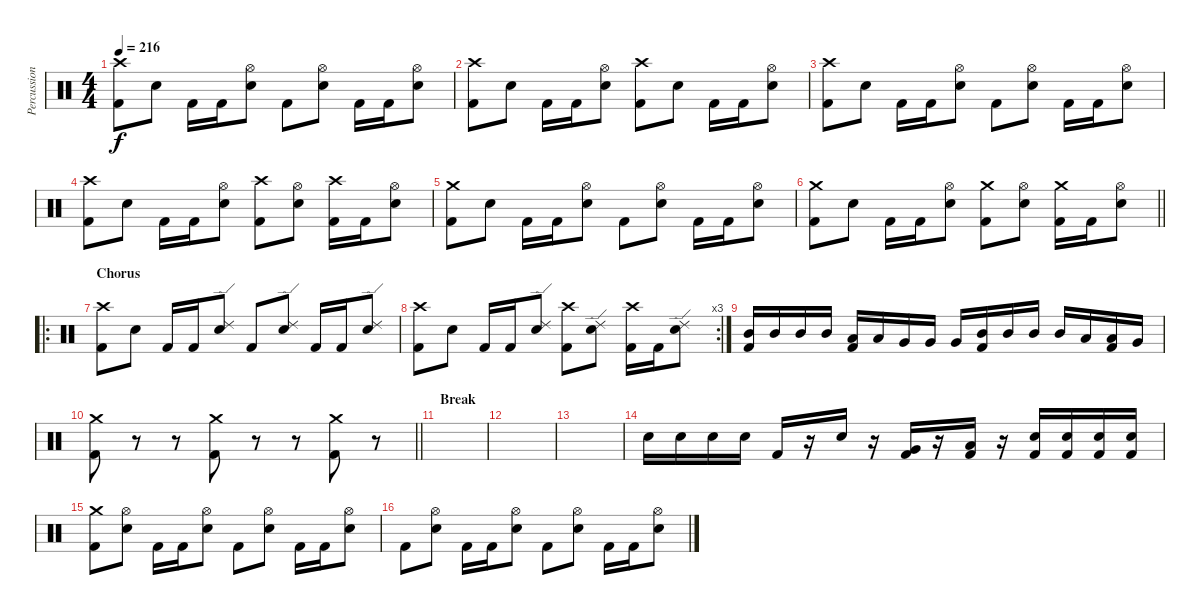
\track ("Percussions" "Percussion") {instrument percussion}
\staff {score}
\articulation defaults
\ts (4 4)
\tempo 216
\clef neutral
\ks c
("Crash high (hit)" "Kick (hit) 2").8{dy f} "Electric Snare (hit)".8 "Kick (hit) 2".16 "Kick (hit) 2".16 ("Hi-Hat (open)" "Electric Snare (hit)").8 "Kick (hit) 2".8 ("Hi-Hat (open)" "Electric Snare (hit)").8 "Kick (hit) 2".16 "Kick (hit) 2".16 ("Hi-Hat (open)" "Electric Snare (hit)").8 |
("Crash high (hit)" "Kick (hit) 2").8 "Electric Snare (hit)".8 "Kick (hit) 2".16 "Kick (hit) 2".16 ("Hi-Hat (open)" "Electric Snare (hit)").8 ("Crash high (hit)" "Kick (hit) 2").8 "Electric Snare (hit)".8 "Kick (hit) 2".16 "Kick (hit) 2".16 ("Hi-Hat (open)" "Electric Snare (hit)").8 |
("Crash high (hit)" "Kick (hit) 2").8 "Electric Snare (hit)".8 "Kick (hit) 2".16 "Kick (hit) 2".16 ("Hi-Hat (open)" "Electric Snare (hit)").8 "Kick (hit) 2".8 ("Hi-Hat (open)" "Electric Snare (hit)").8 "Kick (hit) 2".16 "Kick (hit) 2".16 ("Hi-Hat (open)" "Electric Snare (hit)").8 |
("Crash high (hit)" "Kick (hit) 2").8 "Electric Snare (hit)".8 "Kick (hit) 2".16 "Kick (hit) 2".16 ("Hi-Hat (open)" "Electric Snare (hit)").8 ("Crash high (hit)" "Kick (hit) 2").8 ("Hi-Hat (open)" "Electric Snare (hit)").8 ("Crash high (hit)" "Kick (hit) 2").16 "Kick (hit) 2".16 ("Hi-Hat (open)" "Electric Snare (hit)").8 |
("Crash medium (hit)" "Kick (hit) 2").8 "Electric Snare (hit)".8 "Kick (hit) 2".16 "Kick (hit) 2".16 ("Hi-Hat (open)" "Electric Snare (hit)").8 "Kick (hit) 2".8 ("Hi-Hat (open)" "Electric Snare (hit)").8 "Kick (hit) 2".16 "Kick (hit) 2".16 ("Hi-Hat (open)" "Electric Snare (hit)").8 |
\barLineRight lightlight
("Crash medium (hit)" "Kick (hit) 2").8 "Electric Snare (hit)".8 "Kick (hit) 2".16 "Kick (hit) 2".16 ("Hi-Hat (open)" "Electric Snare (hit)").8 ("Crash medium (hit)" "Kick (hit) 2").8 ("Hi-Hat (open)" "Electric Snare (hit)").8 ("Crash medium (hit)" "Kick (hit) 2").16 "Kick (hit) 2".16 ("Hi-Hat (open)" "Electric Snare (hit)").8 |
\ro
\section ("" "Chorus")
("Crash high (hit)" "Kick (hit) 2").8 "Electric Snare (hit)".8 "Kick (hit) 2".16 "Kick (hit) 2".16 ("Ride (edge) 2" "Electric Snare (hit)").8 "Kick (hit) 2".8 ("Ride (edge) 2" "Electric Snare (hit)").8 "Kick (hit) 2".16 "Kick (hit) 2".16 ("Ride (edge) 2" "Electric Snare (hit)").8 |
\rc 3
("Crash high (hit)" "Kick (hit) 2").8 "Electric Snare (hit)".8 "Kick (hit) 2".16 "Kick (hit) 2".16 ("Ride (edge) 2" "Electric Snare (hit)").8 ("Crash high (hit)" "Kick (hit) 2").8 ("Ride (edge) 2" "Electric Snare (hit)").8 ("Crash high (hit)" "Kick (hit) 2").16 "Kick (hit) 2".16 ("Ride (edge) 2" "Electric Snare (hit)").8 |
("Mid Tom (hit)" "Kick (hit) 2").16 "Mid Tom (hit)".16 "Mid Tom (hit)".16 "Mid Tom (hit)".16 ("Low Tom (hit)" "Kick (hit) 2").16 "Low Tom (hit)".16 "Very Low Tom (hit)".16 "Very Low Tom (hit)".16 "Very Low Tom (hit)".16 ("Mid Tom (hit)" "Kick (hit) 2").16 "Mid Tom (hit)".16 "Mid Tom (hit)".16 "Mid Tom (hit)".16 "Low Tom (hit)".16 ("Low Tom (hit)" "Kick (hit) 2").16 "Very Low Tom (hit)".16 |
\barLineRight lightlight
("Crash medium (hit)" "Kick (hit) 2").8 r.8 r.8 ("Crash medium (hit)" "Kick (hit) 2").8 r.8 r.8 ("Crash medium (hit)" "Kick (hit) 2").8 r.8 |
\section ("" "Break")
|
|
|
"Electric Snare (hit)".16 "Electric Snare (hit)".16 "Electric Snare (hit)".16 "Electric Snare (hit)".16 "Kick (hit) 2".16 r.16 "Electric Snare (hit)".16 r.16 ("Very Low Tom (hit)" "Kick (hit) 2").16 r.16 ("Low Tom (hit)" "Kick (hit) 2").16 r.16 ("Electric Snare (hit)" "Kick (hit) 2").16 ("Electric Snare (hit)" "Kick (hit) 2").16 ("Electric Snare (hit)" "Kick (hit) 2").16 ("Electric Snare (hit)" "Kick (hit) 2").16 |
("Crash medium (hit)" "Kick (hit) 2").8 ("Hi-Hat (open)" "Electric Snare (hit)").8 "Kick (hit) 2".16 "Kick (hit) 2".16 ("Hi-Hat (open)" "Electric Snare (hit)").8 "Kick (hit) 2".8 ("Hi-Hat (open)" "Electric Snare (hit)").8 "Kick (hit) 2".16 "Kick (hit) 2".16 ("Hi-Hat (open)" "Electric Snare (hit)").8 |
"Kick (hit) 2".8 ("Hi-Hat (open)" "Electric Snare (hit)").8 "Kick (hit) 2".16 "Kick (hit) 2".16 ("Hi-Hat (open)" "Electric Snare (hit)").8 "Kick (hit) 2".8 ("Hi-Hat (open)" "Electric Snare (hit)").8 "Kick (hit) 2".16 "Kick (hit) 2".16 ("Hi-Hat (open)" "Electric Snare (hit)").8
